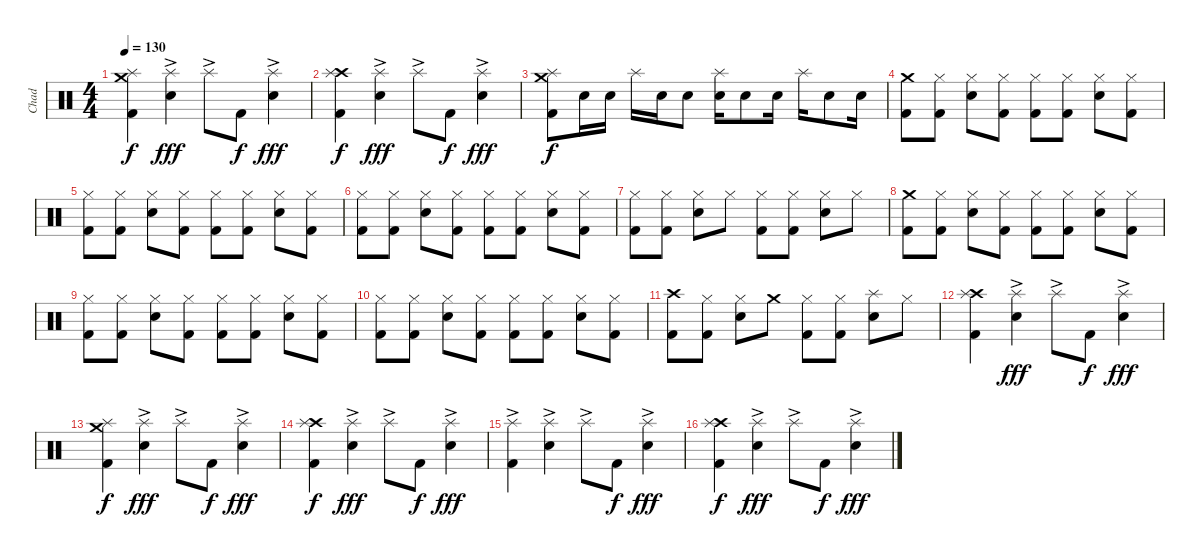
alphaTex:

\track ("Chad" "Chad") {instrument percussion}
\staff {score}
\articulation defaults
\ts (4 4)
\tempo 130
\clef neutral
\ks c
("Crash medium (hit)" "Splash (hit)" "Kick (hit) 2").4{dy f} ("Splash (hit)"{ac} "Snare (hit) 2").4{dy fff} "Splash (hit)"{ac}.8 "Kick (hit) 2".8{dy f} ("Splash (hit)"{ac} "Snare (hit) 2").4{dy fff} |
("Crash high (hit)" "Splash (hit)" "Kick (hit) 2").4{dy f} ("Splash (hit)"{ac} "Snare (hit) 2").4{dy fff} "Splash (hit)"{ac}.8 "Kick (hit) 2".8{dy f} ("Splash (hit)"{ac} "Snare (hit) 2").4{dy fff} |
("Crash medium (hit)" "Splash (hit)" "Kick (hit) 2").8{dy f} "Snare (hit) 2".16 "Snare (hit) 2".16 "Splash (hit)".16 "Snare (hit) 2".16 "Snare (hit) 2".8 ("Splash (hit)" "Snare (hit) 2").16 "Snare (hit) 2".8 "Snare (hit) 2".16 "Splash (hit)".16 "Snare (hit) 2".8 "Snare (hit) 2".16 |
("Crash medium (hit)" "Kick (hit) 2").8 ("Hi-Hat (closed)" "Kick (hit) 2").8 ("Hi-Hat (closed)" "Snare (hit) 2").8 ("Hi-Hat (closed)" "Kick (hit) 2").8 ("Hi-Hat (closed)" "Kick (hit) 2").8 ("Hi-Hat (closed)" "Kick (hit) 2").8 ("Hi-Hat (closed)" "Snare (hit) 2").8 ("Hi-Hat (closed)" "Kick (hit) 2").8 |
("Hi-Hat (closed)" "Kick (hit) 2").8 ("Hi-Hat (closed)" "Kick (hit) 2").8 ("Hi-Hat (closed)" "Snare (hit) 2").8 ("Hi-Hat (closed)" "Kick (hit) 2").8 ("Hi-Hat (closed)" "Kick (hit) 2").8 ("Hi-Hat (closed)" "Kick (hit) 2").8 ("Hi-Hat (closed)" "Snare (hit) 2").8 ("Hi-Hat (closed)" "Kick (hit) 2").8 |
("Hi-Hat (closed)" "Kick (hit) 2").8 ("Hi-Hat (closed)" "Kick (hit) 2").8 ("Hi-Hat (closed)" "Snare (hit) 2").8 ("Hi-Hat (closed)" "Kick (hit) 2").8 ("Hi-Hat (closed)" "Kick (hit) 2").8 ("Hi-Hat (closed)" "Kick (hit) 2").8 ("Hi-Hat (closed)" "Snare (hit) 2").8 ("Hi-Hat (closed)" "Kick (hit) 2").8 |
("Hi-Hat (closed)" "Kick (hit) 2").8 ("Hi-Hat (closed)" "Kick (hit) 2").8 ("Hi-Hat (closed)" "Snare (hit) 2").8 "Hi-Hat (closed)".8 ("Hi-Hat (closed)" "Kick (hit) 2").8 ("Hi-Hat (closed)" "Kick (hit) 2").8 ("Hi-Hat (closed)" "Snare (hit) 2").8 "Hi-Hat (closed)".8 |
("Crash medium (hit)" "Kick (hit) 2").8 ("Hi-Hat (closed)" "Kick (hit) 2").8 ("Hi-Hat (closed)" "Snare (hit) 2").8 ("Hi-Hat (closed)" "Kick (hit) 2").8 ("Hi-Hat (closed)" "Kick (hit) 2").8 ("Hi-Hat (closed)" "Kick (hit) 2").8 ("Hi-Hat (closed)" "Snare (hit) 2").8 ("Hi-Hat (closed)" "Kick (hit) 2").8 |
("Hi-Hat (closed)" "Kick (hit) 2").8 ("Hi-Hat (closed)" "Kick (hit) 2").8 ("Hi-Hat (closed)" "Snare (hit) 2").8 ("Hi-Hat (closed)" "Kick (hit) 2").8 ("Hi-Hat (closed)" "Kick (hit) 2").8 ("Hi-Hat (closed)" "Kick (hit) 2").8 ("Hi-Hat (closed)" "Snare (hit) 2").8 ("Hi-Hat (closed)" "Kick (hit) 2").8 |
("Hi-Hat (closed)" "Kick (hit) 2").8 ("Hi-Hat (closed)" "Kick (hit) 2").8 ("Hi-Hat (closed)" "Snare (hit) 2").8 ("Hi-Hat (closed)" "Kick (hit) 2").8 ("Hi-Hat (closed)" "Kick (hit) 2").8 ("Hi-Hat (closed)" "Kick (hit) 2").8 ("Hi-Hat (closed)" "Snare (hit) 2").8 ("Hi-Hat (closed)" "Kick (hit) 2").8 |
("Crash high (hit)" "Kick (hit) 2").8 ("Hi-Hat (closed)" "Kick (hit) 2").8 ("Hi-Hat (closed)" "Snare (hit) 2").8 "Crash medium (hit)".8 ("Hi-Hat (closed)" "Kick (hit) 2").8 ("Hi-Hat (closed)" "Kick (hit) 2").8 ("Splash (hit)" "Snare (hit) 2").8 "Hi-Hat (closed)".8 |
("Crash high (hit)" "Splash (hit)" "Kick (hit) 2").4 ("Splash (hit)"{ac} "Snare (hit) 2").4{dy fff} "Splash (hit)"{ac}.8 "Kick (hit) 2".8{dy f} ("Splash (hit)"{ac} "Snare (hit) 2").4{dy fff} |
("Crash medium (hit)" "Splash (hit)" "Kick (hit) 2").4{dy f} ("Splash (hit)"{ac} "Snare (hit) 2").4{dy fff} "Splash (hit)"{ac}.8 "Kick (hit) 2".8{dy f} ("Splash (hit)"{ac} "Snare (hit) 2").4{dy fff} |
("Crash high (hit)" "Splash (hit)" "Kick (hit) 2").4{dy f} ("Splash (hit)"{ac} "Snare (hit) 2").4{dy fff} "Splash (hit)"{ac}.8 "Kick (hit) 2".8{dy f} ("Splash (hit)"{ac} "Snare (hit) 2").4{dy fff} |
("Splash (hit)"{ac} "Kick (hit) 2").4 ("Splash (hit)"{ac} "Snare (hit) 2").4 "Splash (hit)"{ac}.8 "Kick (hit) 2".8{dy f} ("Splash (hit)"{ac} "Snare (hit) 2").4{dy fff} |
("Crash high (hit)" "Splash (hit)" "Kick (hit) 2").4{dy f} ("Splash (hit)"{ac} "Snare (hit) 2").4{dy fff} "Splash (hit)"{ac}.8 "Kick (hit) 2".8{dy f} ("Splash (hit)"{ac} "Snare (hit) 2").4{dy fff}
